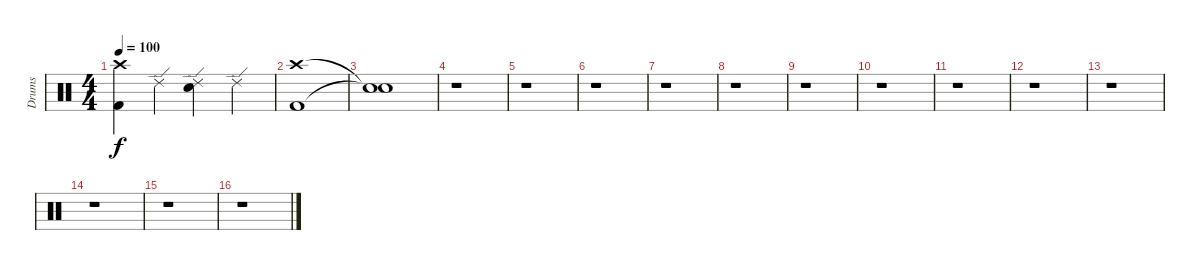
\track ("Drums" "Drums") {instrument percussion}
\staff {score}
\articulation defaults
\ts (4 4)
\tempo 100
\clef neutral
\ks c
("Kick (hit) 2" "Crash high (hit)").4{dy f} "Ride (edge) 2".4 ("Electric Snare (hit)" "Ride (edge) 2").4 "Ride (edge) 2".4 |
("Kick (hit) 2" "Crash high (hit)").1 |
("Snare (hit)"{t} "Snare (hit)"{t}).1 |
r.1 |
r.1 |
r.1 |
r.1 |
r.1 |
r.1 |
r.1 |
r.1 |
r.1 |
r.1 |
r.1 |
r.1 |
r.1
